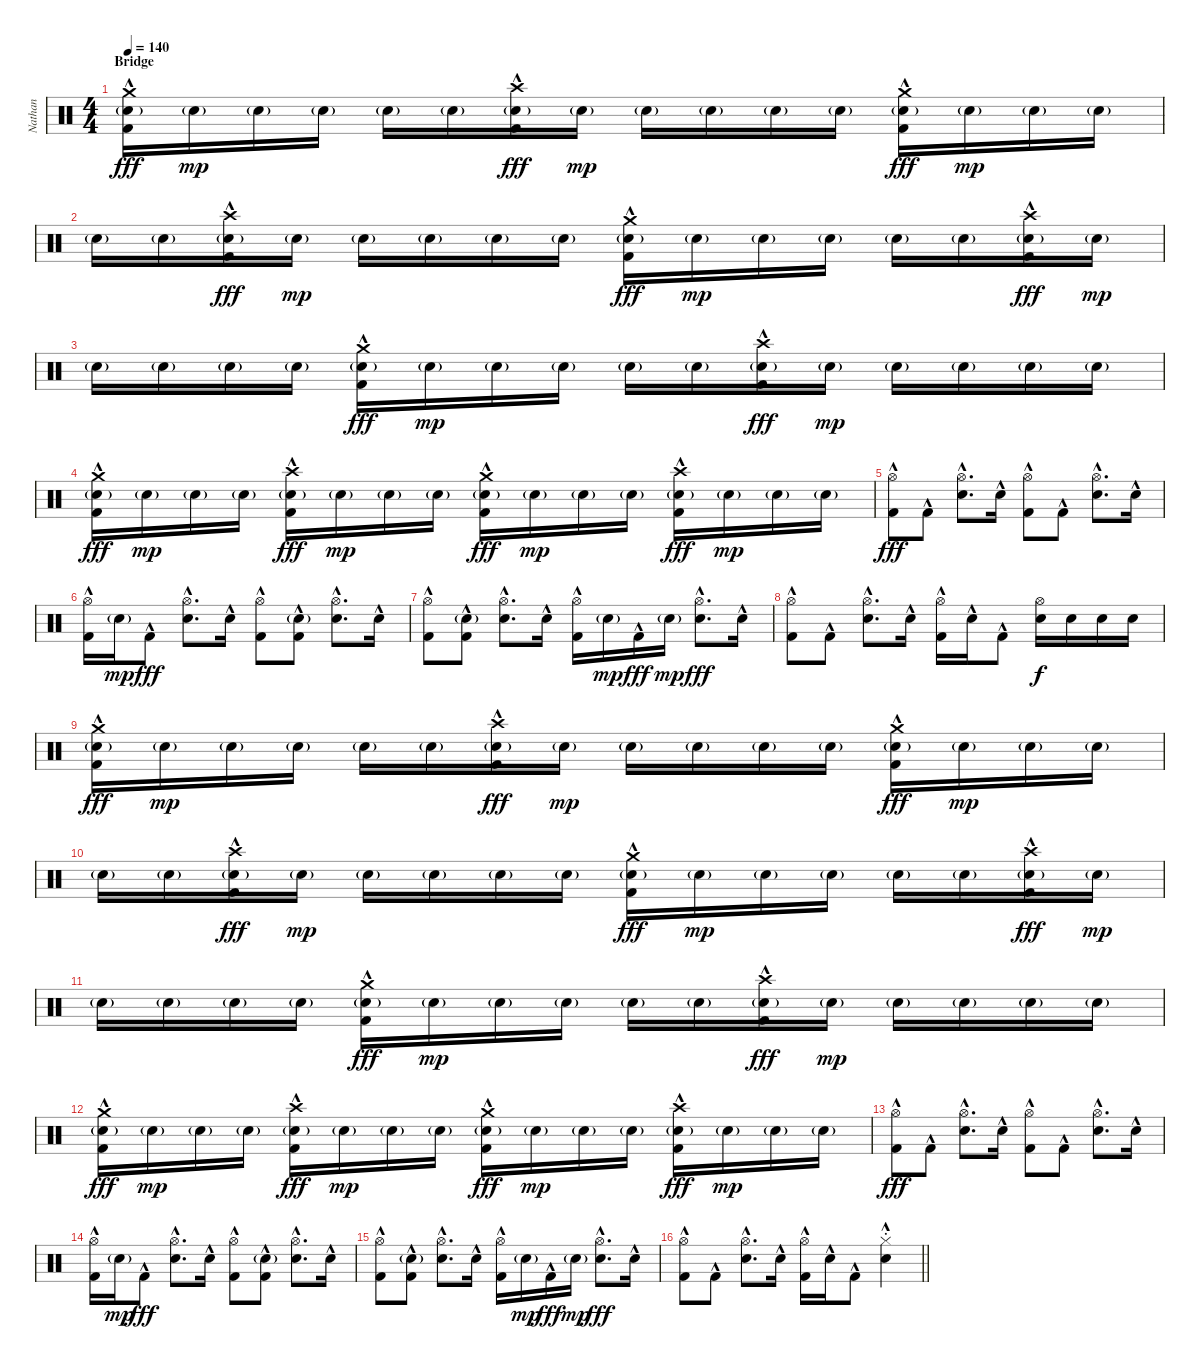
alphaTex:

\track ("Nathan" "Nathan") {instrument percussion}
\staff {score}
\articulation defaults
\ts (4 4)
\section ("" "Bridge")
\tempo 140
\clef neutral
\ks c
("Crash medium (hit)" "Snare (hit) 2"{g} "Kick (hit) 2"{hac}).16{dy fff} "Snare (hit) 2"{g}.16{dy mp} "Snare (hit) 2"{g}.16 "Snare (hit) 2"{g}.16 "Snare (hit) 2"{g}.16 "Snare (hit) 2"{g}.16 ("Crash high (hit)" "Snare (hit) 2"{g} "Kick (hit) 2"{hac}).16{dy fff} "Snare (hit) 2"{g}.16{dy mp} "Snare (hit) 2"{g}.16 "Snare (hit) 2"{g}.16 "Snare (hit) 2"{g}.16 "Snare (hit) 2"{g}.16 ("Crash medium (hit)" "Snare (hit) 2"{g} "Kick (hit) 2"{hac}).16{dy fff} "Snare (hit) 2"{g}.16{dy mp} "Snare (hit) 2"{g}.16 "Snare (hit) 2"{g}.16 |
"Snare (hit) 2"{g}.16 "Snare (hit) 2"{g}.16 ("Crash high (hit)" "Snare (hit) 2"{g} "Kick (hit) 2"{hac}).16{dy fff} "Snare (hit) 2"{g}.16{dy mp} "Snare (hit) 2"{g}.16 "Snare (hit) 2"{g}.16 "Snare (hit) 2"{g}.16 "Snare (hit) 2"{g}.16 ("Crash medium (hit)" "Snare (hit) 2"{g} "Kick (hit) 2"{hac}).16{dy fff} "Snare (hit) 2"{g}.16{dy mp} "Snare (hit) 2"{g}.16 "Snare (hit) 2"{g}.16 "Snare (hit) 2"{g}.16 "Snare (hit) 2"{g}.16 ("Crash high (hit)" "Snare (hit) 2"{g} "Kick (hit) 2"{hac}).16{dy fff} "Snare (hit) 2"{g}.16{dy mp} |
"Snare (hit) 2"{g}.16 "Snare (hit) 2"{g}.16 "Snare (hit) 2"{g}.16 "Snare (hit) 2"{g}.16 ("Crash medium (hit)" "Snare (hit) 2"{g} "Kick (hit) 2"{hac}).16{dy fff} "Snare (hit) 2"{g}.16{dy mp} "Snare (hit) 2"{g}.16 "Snare (hit) 2"{g}.16 "Snare (hit) 2"{g}.16 "Snare (hit) 2"{g}.16 ("Crash high (hit)" "Snare (hit) 2"{g} "Kick (hit) 2"{hac}).16{dy fff} "Snare (hit) 2"{g}.16{dy mp} "Snare (hit) 2"{g}.16 "Snare (hit) 2"{g}.16 "Snare (hit) 2"{g}.16 "Snare (hit) 2"{g}.16 |
("Crash medium (hit)" "Snare (hit) 2"{g} "Kick (hit) 2"{hac}).16{dy fff} "Snare (hit) 2"{g}.16{dy mp} "Snare (hit) 2"{g}.16 "Snare (hit) 2"{g}.16 ("Crash high (hit)" "Snare (hit) 2"{g} "Kick (hit) 2"{hac}).16{dy fff} "Snare (hit) 2"{g}.16{dy mp} "Snare (hit) 2"{g}.16 "Snare (hit) 2"{g}.16 ("Crash medium (hit)" "Snare (hit) 2"{g} "Kick (hit) 2"{hac}).16{dy fff} "Snare (hit) 2"{g}.16{dy mp} "Snare (hit) 2"{g}.16 "Snare (hit) 2"{g}.16 ("Crash high (hit)" "Snare (hit) 2"{g} "Kick (hit) 2"{hac}).16{dy fff} "Snare (hit) 2"{g}.16{dy mp} "Snare (hit) 2"{g}.16 "Snare (hit) 2"{g}.16 |
("Hi-Hat (open)" "Kick (hit) 2"{hac}).8{dy fff} "Kick (hit) 2"{hac}.8 ("Hi-Hat (open)" "Snare (hit) 2"{hac}).8{d} "Snare (hit) 2"{hac}.16 ("Hi-Hat (open)" "Kick (hit) 2"{hac}).8 "Kick (hit) 2"{hac}.8 ("Hi-Hat (open)" "Snare (hit) 2"{hac}).8{d} "Snare (hit) 2"{hac}.16 |
("Hi-Hat (open)" "Kick (hit) 2"{hac}).16 "Snare (hit) 2"{g}.16{dy mp} "Kick (hit) 2"{hac}.8{dy fff} ("Hi-Hat (open)" "Snare (hit) 2"{hac}).8{d} "Snare (hit) 2"{hac}.16 ("Hi-Hat (open)" "Kick (hit) 2"{hac}).8 ("Snare (hit) 2"{g} "Kick (hit) 2"{hac}).8 ("Hi-Hat (open)" "Snare (hit) 2"{hac}).8{d} "Snare (hit) 2"{hac}.16 |
("Hi-Hat (open)" "Kick (hit) 2"{hac}).8 ("Snare (hit) 2"{g} "Kick (hit) 2"{hac}).8 ("Hi-Hat (open)" "Snare (hit) 2"{hac}).8{d} "Snare (hit) 2"{hac}.16 ("Hi-Hat (open)" "Kick (hit) 2"{hac}).16 "Snare (hit) 2"{g}.16{dy mp} "Kick (hit) 2"{hac}.16{dy fff} "Snare (hit) 2"{g}.16{dy mp} ("Hi-Hat (open)" "Snare (hit) 2"{hac}).8{d dy fff} "Snare (hit) 2"{hac}.16 |
("Hi-Hat (open)" "Kick (hit) 2"{hac}).8 "Kick (hit) 2"{hac}.8 ("Hi-Hat (open)" "Snare (hit) 2"{hac}).8{d} "Snare (hit) 2"{hac}.16 ("Hi-Hat (open)" "Kick (hit) 2"{hac}).16 "Snare (hit) 2"{hac}.16 "Kick (hit) 2"{hac}.8 ("Hi-Hat (open)" "Snare (hit) 2").16{dy f} "Snare (hit) 2".16 "Snare (hit) 2".16 "Snare (hit) 2".16 |
("Crash medium (hit)" "Snare (hit) 2"{g} "Kick (hit) 2"{hac}).16{dy fff} "Snare (hit) 2"{g}.16{dy mp} "Snare (hit) 2"{g}.16 "Snare (hit) 2"{g}.16 "Snare (hit) 2"{g}.16 "Snare (hit) 2"{g}.16 ("Crash high (hit)" "Snare (hit) 2"{g} "Kick (hit) 2"{hac}).16{dy fff} "Snare (hit) 2"{g}.16{dy mp} "Snare (hit) 2"{g}.16 "Snare (hit) 2"{g}.16 "Snare (hit) 2"{g}.16 "Snare (hit) 2"{g}.16 ("Crash medium (hit)" "Snare (hit) 2"{g} "Kick (hit) 2"{hac}).16{dy fff} "Snare (hit) 2"{g}.16{dy mp} "Snare (hit) 2"{g}.16 "Snare (hit) 2"{g}.16 |
"Snare (hit) 2"{g}.16 "Snare (hit) 2"{g}.16 ("Crash high (hit)" "Snare (hit) 2"{g} "Kick (hit) 2"{hac}).16{dy fff} "Snare (hit) 2"{g}.16{dy mp} "Snare (hit) 2"{g}.16 "Snare (hit) 2"{g}.16 "Snare (hit) 2"{g}.16 "Snare (hit) 2"{g}.16 ("Crash medium (hit)" "Snare (hit) 2"{g} "Kick (hit) 2"{hac}).16{dy fff} "Snare (hit) 2"{g}.16{dy mp} "Snare (hit) 2"{g}.16 "Snare (hit) 2"{g}.16 "Snare (hit) 2"{g}.16 "Snare (hit) 2"{g}.16 ("Crash high (hit)" "Snare (hit) 2"{g} "Kick (hit) 2"{hac}).16{dy fff} "Snare (hit) 2"{g}.16{dy mp} |
"Snare (hit) 2"{g}.16 "Snare (hit) 2"{g}.16 "Snare (hit) 2"{g}.16 "Snare (hit) 2"{g}.16 ("Crash medium (hit)" "Snare (hit) 2"{g} "Kick (hit) 2"{hac}).16{dy fff} "Snare (hit) 2"{g}.16{dy mp} "Snare (hit) 2"{g}.16 "Snare (hit) 2"{g}.16 "Snare (hit) 2"{g}.16 "Snare (hit) 2"{g}.16 ("Crash high (hit)" "Snare (hit) 2"{g} "Kick (hit) 2"{hac}).16{dy fff} "Snare (hit) 2"{g}.16{dy mp} "Snare (hit) 2"{g}.16 "Snare (hit) 2"{g}.16 "Snare (hit) 2"{g}.16 "Snare (hit) 2"{g}.16 |
("Crash medium (hit)" "Snare (hit) 2"{g} "Kick (hit) 2"{hac}).16{dy fff} "Snare (hit) 2"{g}.16{dy mp} "Snare (hit) 2"{g}.16 "Snare (hit) 2"{g}.16 ("Crash high (hit)" "Snare (hit) 2"{g} "Kick (hit) 2"{hac}).16{dy fff} "Snare (hit) 2"{g}.16{dy mp} "Snare (hit) 2"{g}.16 "Snare (hit) 2"{g}.16 ("Crash medium (hit)" "Snare (hit) 2"{g} "Kick (hit) 2"{hac}).16{dy fff} "Snare (hit) 2"{g}.16{dy mp} "Snare (hit) 2"{g}.16 "Snare (hit) 2"{g}.16 ("Crash high (hit)" "Snare (hit) 2"{g} "Kick (hit) 2"{hac}).16{dy fff} "Snare (hit) 2"{g}.16{dy mp} "Snare (hit) 2"{g}.16 "Snare (hit) 2"{g}.16 |
("Hi-Hat (open)" "Kick (hit) 2"{hac}).8{dy fff} "Kick (hit) 2"{hac}.8 ("Hi-Hat (open)" "Snare (hit) 2"{hac}).8{d} "Snare (hit) 2"{hac}.16 ("Hi-Hat (open)" "Kick (hit) 2"{hac}).8 "Kick (hit) 2"{hac}.8 ("Hi-Hat (open)" "Snare (hit) 2"{hac}).8{d} "Snare (hit) 2"{hac}.16 |
("Hi-Hat (open)" "Kick (hit) 2"{hac}).16 "Snare (hit) 2"{g}.16{dy mp} "Kick (hit) 2"{hac}.8{dy fff} ("Hi-Hat (open)" "Snare (hit) 2"{hac}).8{d} "Snare (hit) 2"{hac}.16 ("Hi-Hat (open)" "Kick (hit) 2"{hac}).8 ("Snare (hit) 2"{g} "Kick (hit) 2"{hac}).8 ("Hi-Hat (open)" "Snare (hit) 2"{hac}).8{d} "Snare (hit) 2"{hac}.16 |
("Hi-Hat (open)" "Kick (hit) 2"{hac}).8 ("Snare (hit) 2"{g} "Kick (hit) 2"{hac}).8 ("Hi-Hat (open)" "Snare (hit) 2"{hac}).8{d} "Snare (hit) 2"{hac}.16 ("Hi-Hat (open)" "Kick (hit) 2"{hac}).16 "Snare (hit) 2"{g}.16{dy mp} "Kick (hit) 2"{hac}.16{dy fff} "Snare (hit) 2"{g}.16{dy mp} ("Hi-Hat (open)" "Snare (hit) 2"{hac}).8{d dy fff} "Snare (hit) 2"{hac}.16 |
\barLineRight lightlight
("Hi-Hat (open)" "Kick (hit) 2"{hac}).8 "Kick (hit) 2"{hac}.8 ("Hi-Hat (open)" "Snare (hit) 2"{hac}).8{d} "Snare (hit) 2"{hac}.16 ("Hi-Hat (open)" "Kick (hit) 2"{hac}).16 "Snare (hit) 2"{hac}.16 "Kick (hit) 2"{hac}.8 ("Hi-Hat (closed)"{st} "Snare (hit) 2"{hac st}).4
